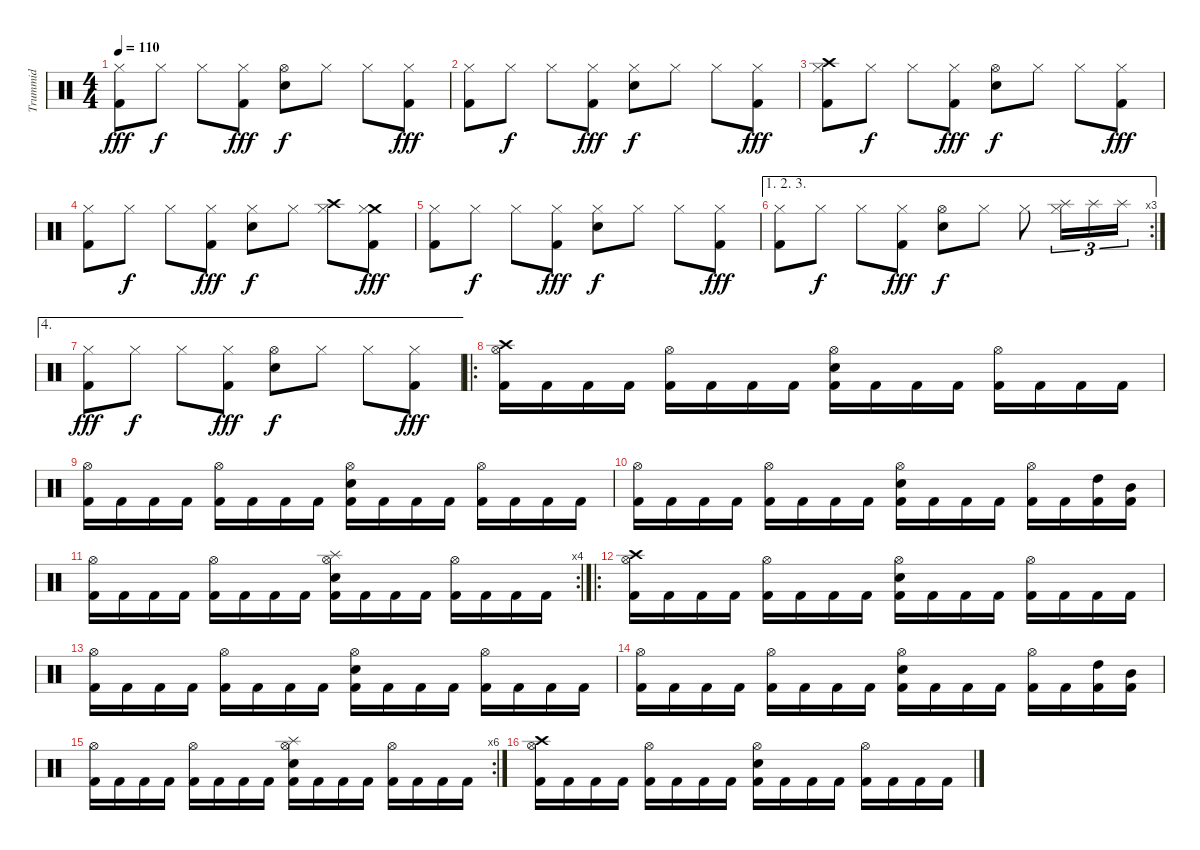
\track ("Trummid" "Trummid") {instrument percussion}
\staff {score}
\articulation defaults
\ts (4 4)
\tempo 110
\clef neutral
\ks c
("Hi-Hat (closed)" "Kick (hit) 2").8{dy fff} "Hi-Hat (closed)".8{dy f} "Hi-Hat (closed)".8 ("Hi-Hat (closed)" "Kick (hit) 2").8{dy fff} ("Snare (hit) 2" "Hi-Hat (open)").8{dy f} "Hi-Hat (closed)".8 "Hi-Hat (closed)".8 ("Hi-Hat (closed)" "Kick (hit) 2").8{dy fff} |
("Hi-Hat (closed)" "Kick (hit) 2").8 "Hi-Hat (closed)".8{dy f} "Hi-Hat (closed)".8 ("Hi-Hat (closed)" "Kick (hit) 2").8{dy fff} ("Snare (hit) 2" "Hi-Hat (closed)").8{dy f} "Hi-Hat (closed)".8 "Hi-Hat (closed)".8 ("Hi-Hat (closed)" "Kick (hit) 2").8{dy fff} |
("Crash high (hit)" "Hi-Hat (closed)" "Kick (hit) 2").8 "Hi-Hat (closed)".8{dy f} "Hi-Hat (closed)".8 ("Hi-Hat (closed)" "Kick (hit) 2").8{dy fff} ("Snare (hit) 2" "Hi-Hat (open)").8{dy f} "Hi-Hat (closed)".8 "Hi-Hat (closed)".8 ("Hi-Hat (closed)" "Kick (hit) 2").8{dy fff} |
("Hi-Hat (closed)" "Kick (hit) 2").8 "Hi-Hat (closed)".8{dy f} "Hi-Hat (closed)".8 ("Hi-Hat (closed)" "Kick (hit) 2").8{dy fff} ("Snare (hit) 2" "Hi-Hat (closed)").8{dy f} "Hi-Hat (closed)".8 ("Crash high (hit)" "Hi-Hat (closed)").8 ("Crash medium (hit)" "Hi-Hat (closed)" "Kick (hit) 2").8{dy fff} |
("Hi-Hat (closed)" "Kick (hit) 2").8 "Hi-Hat (closed)".8{dy f} "Hi-Hat (closed)".8 ("Hi-Hat (closed)" "Kick (hit) 2").8{dy fff} ("Snare (hit) 2" "Hi-Hat (closed)").8{dy f} "Hi-Hat (closed)".8 "Hi-Hat (closed)".8 ("Hi-Hat (closed)" "Kick (hit) 2").8{dy fff} |
\ae (1 2 3)
\rc 3
("Hi-Hat (closed)" "Kick (hit) 2").8 "Hi-Hat (closed)".8{dy f} "Hi-Hat (closed)".8 ("Hi-Hat (closed)" "Kick (hit) 2").8{dy fff} ("Snare (hit) 2" "Hi-Hat (open)").8{dy f} "Hi-Hat (closed)".8 "Hi-Hat (closed)".8 ("Splash (hit)" "Hi-Hat (closed)").16{tu (3 2)} "Splash (hit)".16{tu (3 2)} "Splash (hit)".16{tu (3 2)} |
\ae 4
("Hi-Hat (closed)" "Kick (hit) 2").8{dy fff} "Hi-Hat (closed)".8{dy f} "Hi-Hat (closed)".8 ("Hi-Hat (closed)" "Kick (hit) 2").8{dy fff} ("Snare (hit) 2" "Hi-Hat (open)").8{dy f} "Hi-Hat (closed)".8 "Hi-Hat (closed)".8 ("Hi-Hat (closed)" "Kick (hit) 2").8{dy fff} |
\ro
("Crash high (hit)" "Hi-Hat (open)" "Kick (hit) 2").16 "Kick (hit) 2".16 "Kick (hit) 2".16 "Kick (hit) 2".16 ("Hi-Hat (open)" "Kick (hit) 2").16 "Kick (hit) 2".16 "Kick (hit) 2".16 "Kick (hit) 2".16 ("Hi-Hat (open)" "Snare (hit) 2" "Kick (hit) 2").16 "Kick (hit) 2".16 "Kick (hit) 2".16 "Kick (hit) 2".16 ("Hi-Hat (open)" "Kick (hit) 2").16 "Kick (hit) 2".16 "Kick (hit) 2".16 "Kick (hit) 2".16 |
("Hi-Hat (open)" "Kick (hit) 2").16 "Kick (hit) 2".16 "Kick (hit) 2".16 "Kick (hit) 2".16 ("Hi-Hat (open)" "Kick (hit) 2").16 "Kick (hit) 2".16 "Kick (hit) 2".16 "Kick (hit) 2".16 ("Hi-Hat (open)" "Snare (hit) 2" "Kick (hit) 2").16 "Kick (hit) 2".16 "Kick (hit) 2".16 "Kick (hit) 2".16 ("Hi-Hat (open)" "Kick (hit) 2").16 "Kick (hit) 2".16 "Kick (hit) 2".16 "Kick (hit) 2".16 |
("Hi-Hat (open)" "Kick (hit) 2").16 "Kick (hit) 2".16 "Kick (hit) 2".16 "Kick (hit) 2".16 ("Hi-Hat (open)" "Kick (hit) 2").16 "Kick (hit) 2".16 "Kick (hit) 2".16 "Kick (hit) 2".16 ("Hi-Hat (open)" "Snare (hit) 2" "Kick (hit) 2").16 "Kick (hit) 2".16 "Kick (hit) 2".16 "Kick (hit) 2".16 ("Hi-Hat (open)" "Kick (hit) 2").16 "Kick (hit) 2".16 ("High Tom (hit)" "Kick (hit) 2").16 ("Mid Tom (hit)" "Kick (hit) 2").16 |
\rc 4
("Hi-Hat (open)" "Kick (hit) 2").16 "Kick (hit) 2".16 "Kick (hit) 2".16 "Kick (hit) 2".16 ("Hi-Hat (open)" "Kick (hit) 2").16 "Kick (hit) 2".16 "Kick (hit) 2".16 "Kick (hit) 2".16 ("Splash (hit)" "Hi-Hat (open)" "Snare (hit) 2" "Kick (hit) 2").16 "Kick (hit) 2".16 "Kick (hit) 2".16 "Kick (hit) 2".16 ("Hi-Hat (open)" "Kick (hit) 2").16 "Kick (hit) 2".16 "Kick (hit) 2".16 "Kick (hit) 2".16 |
\ro
("Crash high (hit)" "Hi-Hat (open)" "Kick (hit) 2").16 "Kick (hit) 2".16 "Kick (hit) 2".16 "Kick (hit) 2".16 ("Hi-Hat (open)" "Kick (hit) 2").16 "Kick (hit) 2".16 "Kick (hit) 2".16 "Kick (hit) 2".16 ("Hi-Hat (open)" "Snare (hit) 2" "Kick (hit) 2").16 "Kick (hit) 2".16 "Kick (hit) 2".16 "Kick (hit) 2".16 ("Hi-Hat (open)" "Kick (hit) 2").16 "Kick (hit) 2".16 "Kick (hit) 2".16 "Kick (hit) 2".16 |
("Hi-Hat (open)" "Kick (hit) 2").16 "Kick (hit) 2".16 "Kick (hit) 2".16 "Kick (hit) 2".16 ("Hi-Hat (open)" "Kick (hit) 2").16 "Kick (hit) 2".16 "Kick (hit) 2".16 "Kick (hit) 2".16 ("Hi-Hat (open)" "Snare (hit) 2" "Kick (hit) 2").16 "Kick (hit) 2".16 "Kick (hit) 2".16 "Kick (hit) 2".16 ("Hi-Hat (open)" "Kick (hit) 2").16 "Kick (hit) 2".16 "Kick (hit) 2".16 "Kick (hit) 2".16 |
("Hi-Hat (open)" "Kick (hit) 2").16 "Kick (hit) 2".16 "Kick (hit) 2".16 "Kick (hit) 2".16 ("Hi-Hat (open)" "Kick (hit) 2").16 "Kick (hit) 2".16 "Kick (hit) 2".16 "Kick (hit) 2".16 ("Hi-Hat (open)" "Snare (hit) 2" "Kick (hit) 2").16 "Kick (hit) 2".16 "Kick (hit) 2".16 "Kick (hit) 2".16 ("Hi-Hat (open)" "Kick (hit) 2").16 "Kick (hit) 2".16 ("High Tom (hit)" "Kick (hit) 2").16 ("Mid Tom (hit)" "Kick (hit) 2").16 |
\rc 6
("Hi-Hat (open)" "Kick (hit) 2").16 "Kick (hit) 2".16 "Kick (hit) 2".16 "Kick (hit) 2".16 ("Hi-Hat (open)" "Kick (hit) 2").16 "Kick (hit) 2".16 "Kick (hit) 2".16 "Kick (hit) 2".16 ("Splash (hit)" "Hi-Hat (open)" "Snare (hit) 2" "Kick (hit) 2").16 "Kick (hit) 2".16 "Kick (hit) 2".16 "Kick (hit) 2".16 ("Hi-Hat (open)" "Kick (hit) 2").16 "Kick (hit) 2".16 "Kick (hit) 2".16 "Kick (hit) 2".16 |
("Crash high (hit)" "Hi-Hat (open)" "Kick (hit) 2").16 "Kick (hit) 2".16 "Kick (hit) 2".16 "Kick (hit) 2".16 ("Hi-Hat (open)" "Kick (hit) 2").16 "Kick (hit) 2".16 "Kick (hit) 2".16 "Kick (hit) 2".16 ("Hi-Hat (open)" "Snare (hit) 2" "Kick (hit) 2").16 "Kick (hit) 2".16 "Kick (hit) 2".16 "Kick (hit) 2".16 ("Hi-Hat (open)" "Kick (hit) 2").16 "Kick (hit) 2".16 "Kick (hit) 2".16 "Kick (hit) 2".16
